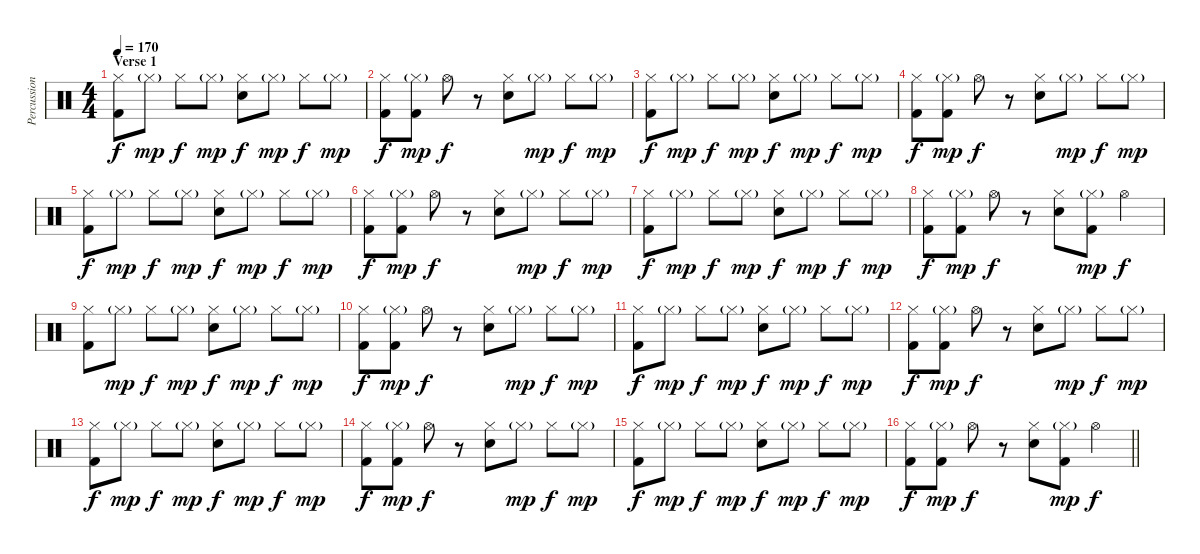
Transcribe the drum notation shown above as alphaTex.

\track ("Percussion" "Percussion") {instrument percussion}
\staff {score}
\articulation defaults
\ts (4 4)
\section ("" "Verse 1")
\tempo 170
\clef neutral
\ks c
("Hi-Hat (closed)" "Kick (hit) 2").8{dy f} "Hi-Hat (closed)"{g}.8{dy mp} "Hi-Hat (closed)".8{dy f} "Hi-Hat (closed)"{g}.8{dy mp} ("Hi-Hat (closed)" "Electric Snare (hit)").8{dy f} "Hi-Hat (closed)"{g}.8{dy mp} "Hi-Hat (closed)".8{dy f} "Hi-Hat (closed)"{g}.8{dy mp} |
("Hi-Hat (closed)" "Kick (hit) 2").8{dy f} ("Hi-Hat (closed)"{g} "Kick (hit) 2").8{dy mp} "Hi-Hat (open)".8{dy f} r.8 ("Hi-Hat (closed)" "Electric Snare (hit)").8 "Hi-Hat (closed)"{g}.8{dy mp} "Hi-Hat (closed)".8{dy f} "Hi-Hat (closed)"{g}.8{dy mp} |
("Hi-Hat (closed)" "Kick (hit) 2").8{dy f} "Hi-Hat (closed)"{g}.8{dy mp} "Hi-Hat (closed)".8{dy f} "Hi-Hat (closed)"{g}.8{dy mp} ("Hi-Hat (closed)" "Electric Snare (hit)").8{dy f} "Hi-Hat (closed)"{g}.8{dy mp} "Hi-Hat (closed)".8{dy f} "Hi-Hat (closed)"{g}.8{dy mp} |
("Hi-Hat (closed)" "Kick (hit) 2").8{dy f} ("Hi-Hat (closed)"{g} "Kick (hit) 2").8{dy mp} "Hi-Hat (open)".8{dy f} r.8 ("Hi-Hat (closed)" "Electric Snare (hit)").8 "Hi-Hat (closed)"{g}.8{dy mp} "Hi-Hat (closed)".8{dy f} "Hi-Hat (closed)"{g}.8{dy mp} |
("Hi-Hat (closed)" "Kick (hit) 2").8{dy f} "Hi-Hat (closed)"{g}.8{dy mp} "Hi-Hat (closed)".8{dy f} "Hi-Hat (closed)"{g}.8{dy mp} ("Hi-Hat (closed)" "Electric Snare (hit)").8{dy f} "Hi-Hat (closed)"{g}.8{dy mp} "Hi-Hat (closed)".8{dy f} "Hi-Hat (closed)"{g}.8{dy mp} |
("Hi-Hat (closed)" "Kick (hit) 2").8{dy f} ("Hi-Hat (closed)"{g} "Kick (hit) 2").8{dy mp} "Hi-Hat (open)".8{dy f} r.8 ("Hi-Hat (closed)" "Electric Snare (hit)").8 "Hi-Hat (closed)"{g}.8{dy mp} "Hi-Hat (closed)".8{dy f} "Hi-Hat (closed)"{g}.8{dy mp} |
("Hi-Hat (closed)" "Kick (hit) 2").8{dy f} "Hi-Hat (closed)"{g}.8{dy mp} "Hi-Hat (closed)".8{dy f} "Hi-Hat (closed)"{g}.8{dy mp} ("Hi-Hat (closed)" "Electric Snare (hit)").8{dy f} "Hi-Hat (closed)"{g}.8{dy mp} "Hi-Hat (closed)".8{dy f} "Hi-Hat (closed)"{g}.8{dy mp} |
("Hi-Hat (closed)" "Kick (hit) 2").8{dy f} ("Hi-Hat (closed)"{g} "Kick (hit) 2").8{dy mp} "Hi-Hat (open)".8{dy f} r.8 ("Hi-Hat (closed)" "Electric Snare (hit)").8 ("Hi-Hat (closed)"{g} "Kick (hit) 2").8{dy mp} "Hi-Hat (open)".4{dy f} |
("Hi-Hat (closed)" "Kick (hit) 2").8 "Hi-Hat (closed)"{g}.8{dy mp} "Hi-Hat (closed)".8{dy f} "Hi-Hat (closed)"{g}.8{dy mp} ("Hi-Hat (closed)" "Electric Snare (hit)").8{dy f} "Hi-Hat (closed)"{g}.8{dy mp} "Hi-Hat (closed)".8{dy f} "Hi-Hat (closed)"{g}.8{dy mp} |
("Hi-Hat (closed)" "Kick (hit) 2").8{dy f} ("Hi-Hat (closed)"{g} "Kick (hit) 2").8{dy mp} "Hi-Hat (open)".8{dy f} r.8 ("Hi-Hat (closed)" "Electric Snare (hit)").8 "Hi-Hat (closed)"{g}.8{dy mp} "Hi-Hat (closed)".8{dy f} "Hi-Hat (closed)"{g}.8{dy mp} |
("Hi-Hat (closed)" "Kick (hit) 2").8{dy f} "Hi-Hat (closed)"{g}.8{dy mp} "Hi-Hat (closed)".8{dy f} "Hi-Hat (closed)"{g}.8{dy mp} ("Hi-Hat (closed)" "Electric Snare (hit)").8{dy f} "Hi-Hat (closed)"{g}.8{dy mp} "Hi-Hat (closed)".8{dy f} "Hi-Hat (closed)"{g}.8{dy mp} |
("Hi-Hat (closed)" "Kick (hit) 2").8{dy f} ("Hi-Hat (closed)"{g} "Kick (hit) 2").8{dy mp} "Hi-Hat (open)".8{dy f} r.8 ("Hi-Hat (closed)" "Electric Snare (hit)").8 "Hi-Hat (closed)"{g}.8{dy mp} "Hi-Hat (closed)".8{dy f} "Hi-Hat (closed)"{g}.8{dy mp} |
("Hi-Hat (closed)" "Kick (hit) 2").8{dy f} "Hi-Hat (closed)"{g}.8{dy mp} "Hi-Hat (closed)".8{dy f} "Hi-Hat (closed)"{g}.8{dy mp} ("Hi-Hat (closed)" "Electric Snare (hit)").8{dy f} "Hi-Hat (closed)"{g}.8{dy mp} "Hi-Hat (closed)".8{dy f} "Hi-Hat (closed)"{g}.8{dy mp} |
("Hi-Hat (closed)" "Kick (hit) 2").8{dy f} ("Hi-Hat (closed)"{g} "Kick (hit) 2").8{dy mp} "Hi-Hat (open)".8{dy f} r.8 ("Hi-Hat (closed)" "Electric Snare (hit)").8 "Hi-Hat (closed)"{g}.8{dy mp} "Hi-Hat (closed)".8{dy f} "Hi-Hat (closed)"{g}.8{dy mp} |
("Hi-Hat (closed)" "Kick (hit) 2").8{dy f} "Hi-Hat (closed)"{g}.8{dy mp} "Hi-Hat (closed)".8{dy f} "Hi-Hat (closed)"{g}.8{dy mp} ("Hi-Hat (closed)" "Electric Snare (hit)").8{dy f} "Hi-Hat (closed)"{g}.8{dy mp} "Hi-Hat (closed)".8{dy f} "Hi-Hat (closed)"{g}.8{dy mp} |
\barLineRight lightlight
("Hi-Hat (closed)" "Kick (hit) 2").8{dy f} ("Hi-Hat (closed)"{g} "Kick (hit) 2").8{dy mp} "Hi-Hat (open)".8{dy f} r.8 ("Hi-Hat (closed)" "Electric Snare (hit)").8 ("Hi-Hat (closed)"{g} "Kick (hit) 2").8{dy mp} "Hi-Hat (open)".4{dy f}
